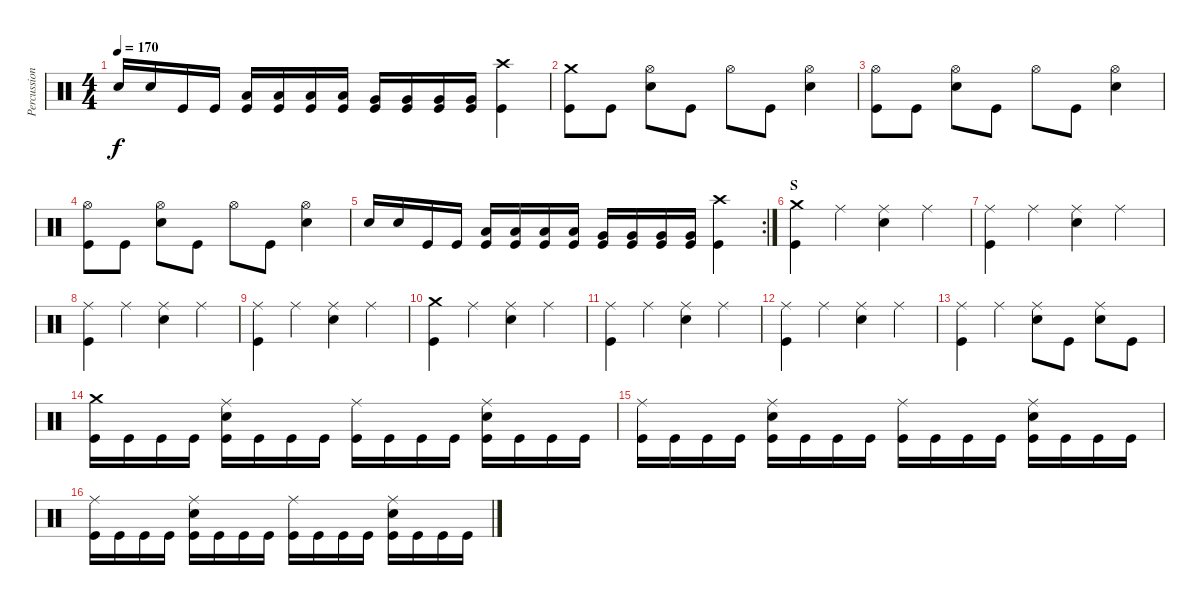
\track ("Percussion" "Percussion") {instrument percussion}
\staff {score}
\articulation defaults
\ts (4 4)
\tempo 170
\clef neutral
\ks c "Electric Snare (hit)".16{dy f} "Electric Snare (hit)".16 "Kick (hit)".16 "Kick (hit)".16
("Low Tom (hit)" "Kick (hit)").16 ("Low Tom (hit)" "Kick (hit)").16 ("Low Tom (hit)" "Kick (hit)").16 ("Low Tom (hit)" "Kick (hit)").16 ("Very Low Tom (hit)" "Kick (hit)").16 ("Very Low Tom (hit)" "Kick (hit)").16 ("Very Low Tom (hit)" "Kick (hit)").16 ("Very Low Tom (hit)" "Kick (hit)").16 ("Crash high (hit)" "Kick (hit)").4 |
("Crash medium (hit)" "Kick (hit)").8 "Kick (hit)".8 ("Hi-Hat (open)" "Electric Snare (hit)").8 "Kick (hit)".8 "Hi-Hat (open)".8 "Kick (hit)".8 ("Hi-Hat (open)" "Electric Snare (hit)").4 |
("Hi-Hat (open)" "Kick (hit)").8 "Kick (hit)".8 ("Hi-Hat (open)" "Electric Snare (hit)").8 "Kick (hit)".8 "Hi-Hat (open)".8 "Kick (hit)".8 ("Hi-Hat (open)" "Electric Snare (hit)").4 |
("Hi-Hat (open)" "Kick (hit)").8 "Kick (hit)".8 ("Hi-Hat (open)" "Electric Snare (hit)").8 "Kick (hit)".8 "Hi-Hat (open)".8 "Kick (hit)".8 ("Hi-Hat (open)" "Electric Snare (hit)").4 |
\rc 2 "Electric Snare (hit)".16 "Electric Snare (hit)".16 "Kick (hit)".16 "Kick (hit)".16
("Low Tom (hit)" "Kick (hit)").16 ("Low Tom (hit)" "Kick (hit)").16 ("Low Tom (hit)" "Kick (hit)").16 ("Low Tom (hit)" "Kick (hit)").16 ("Very Low Tom (hit)" "Kick (hit)").16 ("Very Low Tom (hit)" "Kick (hit)").16 ("Very Low Tom (hit)" "Kick (hit)").16 ("Very Low Tom (hit)" "Kick (hit)").16 ("Crash high (hit)" "Kick (hit)").4 |
\section ("" "S")
("Crash medium (hit)" "Kick (hit)").4 "Ride (middle)".4 ("Ride (middle)" "Electric Snare (hit)").4 "Ride (middle)".4 |
("Ride (middle)" "Kick (hit)").4 "Ride (middle)".4 ("Ride (middle)" "Electric Snare (hit)").4 "Ride (middle)".4 |
("Ride (middle)" "Kick (hit)").4 "Ride (middle)".4 ("Ride (middle)" "Electric Snare (hit)").4 "Ride (middle)".4 |
("Ride (middle)" "Kick (hit)").4 "Ride (middle)".4 ("Ride (middle)" "Electric Snare (hit)").4 "Ride (middle)".4 |
("Crash medium (hit)" "Kick (hit)").4 "Ride (middle)".4 ("Ride (middle)" "Electric Snare (hit)").4 "Ride (middle)".4 |
("Ride (middle)" "Kick (hit)").4 "Ride (middle)".4 ("Ride (middle)" "Electric Snare (hit)").4 "Ride (middle)".4 |
("Ride (middle)" "Kick (hit)").4 "Ride (middle)".4 ("Ride (middle)" "Electric Snare (hit)").4 "Ride (middle)".4 |
("Ride (middle)" "Kick (hit)").4 "Ride (middle)".4 ("Ride (middle)" "Electric Snare (hit)").8 "Kick (hit)".8 ("Ride (middle)" "Electric Snare (hit)").8 "Kick (hit)".8 |
("Crash medium (hit)" "Kick (hit)").16 "Kick (hit)".16 "Kick (hit)".16 "Kick (hit)".16 ("Ride (middle)" "Electric Snare (hit)" "Kick (hit)").16 "Kick (hit)".16 "Kick (hit)".16 "Kick (hit)".16 ("Ride (middle)" "Kick (hit)").16 "Kick (hit)".16 "Kick (hit)".16 "Kick (hit)".16 ("Ride (middle)" "Electric Snare (hit)" "Kick (hit)").16 "Kick (hit)".16 "Kick (hit)".16 "Kick (hit)".16 |
("Ride (middle)" "Kick (hit)").16 "Kick (hit)".16 "Kick (hit)".16 "Kick (hit)".16 ("Ride (middle)" "Electric Snare (hit)" "Kick (hit)").16 "Kick (hit)".16 "Kick (hit)".16 "Kick (hit)".16 ("Ride (middle)" "Kick (hit)").16 "Kick (hit)".16 "Kick (hit)".16 "Kick (hit)".16 ("Ride (middle)" "Electric Snare (hit)" "Kick (hit)").16 "Kick (hit)".16 "Kick (hit)".16 "Kick (hit)".16 |
("Ride (middle)" "Kick (hit)").16 "Kick (hit)".16 "Kick (hit)".16 "Kick (hit)".16 ("Ride (middle)" "Electric Snare (hit)" "Kick (hit)").16 "Kick (hit)".16 "Kick (hit)".16 "Kick (hit)".16 ("Ride (middle)" "Kick (hit)").16 "Kick (hit)".16 "Kick (hit)".16 "Kick (hit)".16 ("Ride (middle)" "Electric Snare (hit)" "Kick (hit)").16 "Kick (hit)".16 "Kick (hit)".16 "Kick (hit)".16
